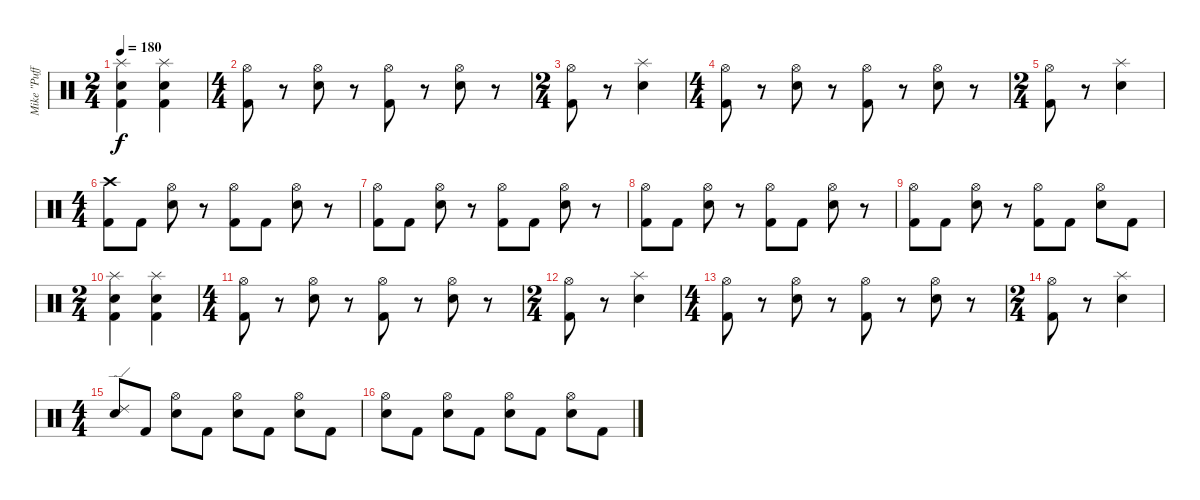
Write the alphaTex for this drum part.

\track ("Mike \"Puffy\" Bordin" "Mike \"Puff") {instrument percussion}
\staff {score}
\articulation defaults
\ts (2 4)
\tempo 180
\clef neutral
\ks c
("Splash (hit)" "Electric Snare (hit)" "Kick (hit) 2").4{dy f} ("Splash (hit)" "Electric Snare (hit)" "Kick (hit) 2").4 |
\ts (4 4)
("Hi-Hat (open)" "Kick (hit) 2").8 r.8 ("Hi-Hat (open)" "Electric Snare (hit)").8 r.8 ("Hi-Hat (open)" "Kick (hit) 2").8 r.8 ("Hi-Hat (open)" "Electric Snare (hit)").8 r.8 |
\ts (2 4)
("Hi-Hat (open)" "Kick (hit) 2").8 r.8 ("Splash (hit)" "Electric Snare (hit)").4 |
\ts (4 4)
("Hi-Hat (open)" "Kick (hit) 2").8 r.8 ("Hi-Hat (open)" "Electric Snare (hit)").8 r.8 ("Hi-Hat (open)" "Kick (hit) 2").8 r.8 ("Hi-Hat (open)" "Electric Snare (hit)").8 r.8 |
\ts (2 4)
("Hi-Hat (open)" "Kick (hit) 2").8 r.8 ("Splash (hit)" "Electric Snare (hit)").4 |
\ts (4 4)
("Crash high (hit)" "Kick (hit) 2").8 "Kick (hit) 2".8 ("Hi-Hat (open)" "Electric Snare (hit)").8 r.8 ("Hi-Hat (open)" "Kick (hit) 2").8 "Kick (hit) 2".8 ("Hi-Hat (open)" "Electric Snare (hit)").8 r.8 |
("Hi-Hat (open)" "Kick (hit) 2").8 "Kick (hit) 2".8 ("Hi-Hat (open)" "Electric Snare (hit)").8 r.8 ("Hi-Hat (open)" "Kick (hit) 2").8 "Kick (hit) 2".8 ("Hi-Hat (open)" "Electric Snare (hit)").8 r.8 |
("Hi-Hat (open)" "Kick (hit) 2").8 "Kick (hit) 2".8 ("Hi-Hat (open)" "Electric Snare (hit)").8 r.8 ("Hi-Hat (open)" "Kick (hit) 2").8 "Kick (hit) 2".8 ("Hi-Hat (open)" "Electric Snare (hit)").8 r.8 |
("Hi-Hat (open)" "Kick (hit) 2").8 "Kick (hit) 2".8 ("Hi-Hat (open)" "Electric Snare (hit)").8 r.8 ("Hi-Hat (open)" "Kick (hit) 2").8 "Kick (hit) 2".8 ("Hi-Hat (open)" "Electric Snare (hit)").8 "Kick (hit) 2".8 |
\ts (2 4)
("Splash (hit)" "Electric Snare (hit)" "Kick (hit) 2").4 ("Splash (hit)" "Electric Snare (hit)" "Kick (hit) 2").4 |
\ts (4 4)
("Hi-Hat (open)" "Kick (hit) 2").8 r.8 ("Hi-Hat (open)" "Electric Snare (hit)").8 r.8 ("Hi-Hat (open)" "Kick (hit) 2").8 r.8 ("Hi-Hat (open)" "Electric Snare (hit)").8 r.8 |
\ts (2 4)
("Hi-Hat (open)" "Kick (hit) 2").8 r.8 ("Splash (hit)" "Electric Snare (hit)").4 |
\ts (4 4)
("Hi-Hat (open)" "Kick (hit) 2").8 r.8 ("Hi-Hat (open)" "Electric Snare (hit)").8 r.8 ("Hi-Hat (open)" "Kick (hit) 2").8 r.8 ("Hi-Hat (open)" "Electric Snare (hit)").8 r.8 |
\ts (2 4)
("Hi-Hat (open)" "Kick (hit) 2").8 r.8 ("Splash (hit)" "Electric Snare (hit)").4 |
\ts (4 4)
("Ride (edge) 2" "Electric Snare (hit)").8 "Kick (hit) 2".8 ("Hi-Hat (open)" "Electric Snare (hit)").8 "Kick (hit) 2".8 ("Hi-Hat (open)" "Electric Snare (hit)").8 "Kick (hit) 2".8 ("Hi-Hat (open)" "Electric Snare (hit)").8 "Kick (hit) 2".8 |
("Hi-Hat (open)" "Electric Snare (hit)").8 "Kick (hit) 2".8 ("Hi-Hat (open)" "Electric Snare (hit)").8 "Kick (hit) 2".8 ("Hi-Hat (open)" "Electric Snare (hit)").8 "Kick (hit) 2".8 ("Hi-Hat (open)" "Electric Snare (hit)").8 "Kick (hit) 2".8
